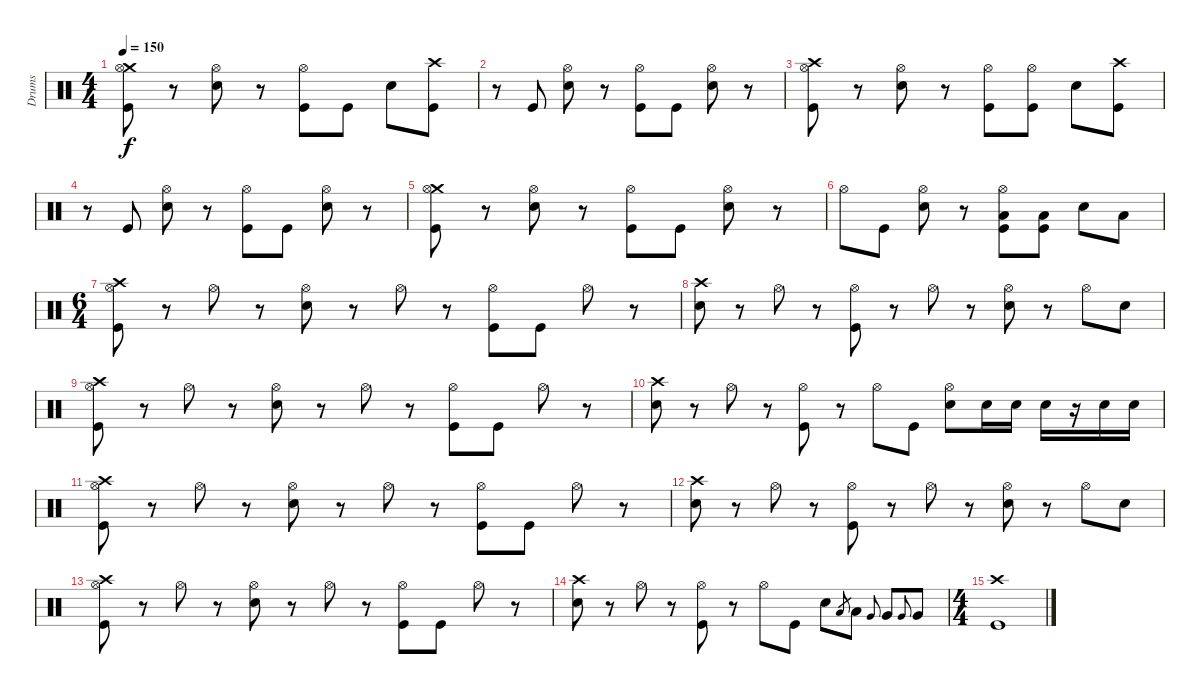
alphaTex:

\track ("Drums" "Drums") {instrument percussion}
\staff {score}
\articulation defaults
\ts (4 4)
\tempo 150
\clef neutral
\ks c
("Crash medium (hit)" "Hi-Hat (open)" "Kick (hit)").8{dy f} r.8 ("Hi-Hat (open)" "Electric Snare (hit)").8 r.8 ("Hi-Hat (open)" "Kick (hit)").8 "Kick (hit)".8 "Electric Snare (hit)".8 ("Crash high (hit)" "Kick (hit)").8 |
r.8 "Kick (hit)".8 ("Hi-Hat (open)" "Electric Snare (hit)").8 r.8 ("Hi-Hat (open)" "Kick (hit)").8 "Kick (hit)".8 ("Hi-Hat (open)" "Electric Snare (hit)").8 r.8 |
("Crash high (hit)" "Hi-Hat (open)" "Kick (hit)").8 r.8 ("Hi-Hat (open)" "Electric Snare (hit)").8 r.8 ("Hi-Hat (open)" "Kick (hit)").8 ("Hi-Hat (open)" "Kick (hit)").8 "Electric Snare (hit)".8 ("Crash high (hit)" "Kick (hit)").8 |
r.8 "Kick (hit)".8 ("Hi-Hat (open)" "Electric Snare (hit)").8 r.8 ("Hi-Hat (open)" "Kick (hit)").8 "Kick (hit)".8 ("Hi-Hat (open)" "Electric Snare (hit)").8 r.8 |
("Crash medium (hit)" "Hi-Hat (open)" "Kick (hit)").8 r.8 ("Hi-Hat (open)" "Electric Snare (hit)").8 r.8 ("Hi-Hat (open)" "Kick (hit)").8 "Kick (hit)".8 ("Hi-Hat (open)" "Electric Snare (hit)").8 r.8 |
"Hi-Hat (open)".8 "Kick (hit)".8 ("Hi-Hat (open)" "Electric Snare (hit)").8 r.8 ("Hi-Hat (open)" "Low Floor Tom (hit)" "Kick (hit)").8 ("Low Floor Tom (hit)" "Kick (hit)").8 "Electric Snare (hit)".8 "Low Tom (hit)".8 |
\ts (6 4)
("Crash high (hit)" "Hi-Hat (open)" "Kick (hit)").8 r.8 "Hi-Hat (open)".8 r.8 ("Hi-Hat (open)" "Electric Snare (hit)").8 r.8 "Hi-Hat (open)".8 r.8 ("Hi-Hat (open)" "Kick (hit)").8 "Kick (hit)".8 "Hi-Hat (open)".8 r.8 |
("Crash high (hit)" "Electric Snare (hit)").8 r.8 "Hi-Hat (open)".8 r.8 ("Hi-Hat (open)" "Kick (hit)").8 r.8 "Hi-Hat (open)".8 r.8 ("Hi-Hat (open)" "Electric Snare (hit)").8 r.8 "Hi-Hat (open)".8 "Electric Snare (hit)".8 |
("Crash high (hit)" "Hi-Hat (open)" "Kick (hit)").8 r.8 "Hi-Hat (open)".8 r.8 ("Hi-Hat (open)" "Electric Snare (hit)").8 r.8 "Hi-Hat (open)".8 r.8 ("Hi-Hat (open)" "Kick (hit)").8 "Kick (hit)".8 "Hi-Hat (open)".8 r.8 |
("Crash high (hit)" "Electric Snare (hit)").8 r.8 "Hi-Hat (open)".8 r.8 ("Hi-Hat (open)" "Kick (hit)").8 r.8 "Hi-Hat (open)".8 "Kick (hit)".8 ("Hi-Hat (open)" "Electric Snare (hit)").8 "Electric Snare (hit)".16 "Electric Snare (hit)".16 "Electric Snare (hit)".16 r.16 "Electric Snare (hit)".16 "Electric Snare (hit)".16 |
("Crash high (hit)" "Hi-Hat (open)" "Kick (hit)").8 r.8 "Hi-Hat (open)".8 r.8 ("Hi-Hat (open)" "Electric Snare (hit)").8 r.8 "Hi-Hat (open)".8 r.8 ("Hi-Hat (open)" "Kick (hit)").8 "Kick (hit)".8 "Hi-Hat (open)".8 r.8 |
("Crash high (hit)" "Electric Snare (hit)").8 r.8 "Hi-Hat (open)".8 r.8 ("Hi-Hat (open)" "Kick (hit)").8 r.8 "Hi-Hat (open)".8 r.8 ("Hi-Hat (open)" "Electric Snare (hit)").8 r.8 "Hi-Hat (open)".8 "Electric Snare (hit)".8 |
("Crash high (hit)" "Hi-Hat (open)" "Kick (hit)").8 r.8 "Hi-Hat (open)".8 r.8 ("Hi-Hat (open)" "Electric Snare (hit)").8 r.8 "Hi-Hat (open)".8 r.8 ("Hi-Hat (open)" "Kick (hit)").8 "Kick (hit)".8 "Hi-Hat (open)".8 r.8 |
("Crash high (hit)" "Electric Snare (hit)").8 r.8 "Hi-Hat (open)".8 r.8 ("Hi-Hat (open)" "Kick (hit)").8 r.8 "Hi-Hat (open)".8 "Kick (hit)".8 "Electric Snare (hit)".8 "Low Tom (hit)".8{gr} "Low Tom (hit)".8 "Very Low Tom (hit)".8{gr onbeat} "Very Low Tom (hit)".8 "Very Low Tom (hit)".8{gr onbeat} "Very Low Tom (hit)".8 |
\ts (4 4)
("Crash high (hit)" "Kick (hit)").1
